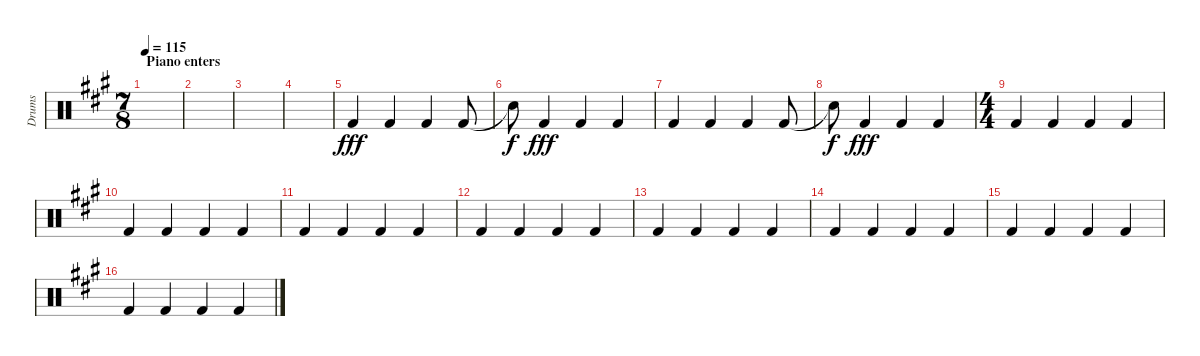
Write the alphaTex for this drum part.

\track ("Drums" "Drums") {instrument percussion}
\staff {score}
\articulation defaults
\ts (7 8)
\section ("" "Piano enters")
\tempo 115
\clef neutral
\ks a
|
|
|
|
"Kick (hit) 2".4{dy fff} "Kick (hit) 2".4 "Kick (hit) 2".4 "Kick (hit) 2".8 |
"Snare (hit)"{t}.8{dy f} "Kick (hit) 2".4{dy fff} "Kick (hit) 2".4 "Kick (hit) 2".4 |
"Kick (hit) 2".4 "Kick (hit) 2".4 "Kick (hit) 2".4 "Kick (hit) 2".8 |
"Snare (hit)"{t}.8{dy f} "Kick (hit) 2".4{dy fff} "Kick (hit) 2".4 "Kick (hit) 2".4 |
\ts (4 4)
"Kick (hit) 2".4 "Kick (hit) 2".4 "Kick (hit) 2".4 "Kick (hit) 2".4 |
"Kick (hit) 2".4 "Kick (hit) 2".4 "Kick (hit) 2".4 "Kick (hit) 2".4 |
"Kick (hit) 2".4 "Kick (hit) 2".4 "Kick (hit) 2".4 "Kick (hit) 2".4 |
"Kick (hit) 2".4 "Kick (hit) 2".4 "Kick (hit) 2".4 "Kick (hit) 2".4 |
"Kick (hit) 2".4 "Kick (hit) 2".4 "Kick (hit) 2".4 "Kick (hit) 2".4 |
"Kick (hit) 2".4 "Kick (hit) 2".4 "Kick (hit) 2".4 "Kick (hit) 2".4 |
"Kick (hit) 2".4 "Kick (hit) 2".4 "Kick (hit) 2".4 "Kick (hit) 2".4 |
"Kick (hit) 2".4 "Kick (hit) 2".4 "Kick (hit) 2".4 "Kick (hit) 2".4
